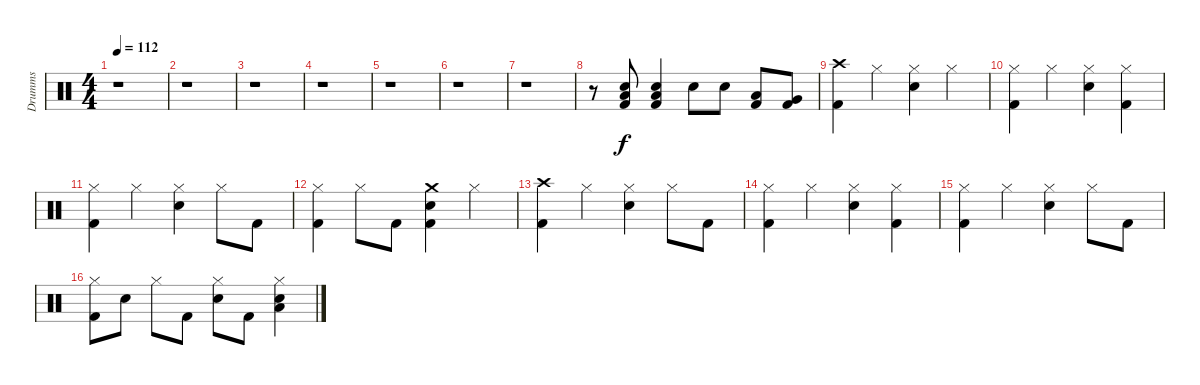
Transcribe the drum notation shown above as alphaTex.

\track ("Drumms" "Drumms") {instrument percussion}
\staff {score}
\articulation defaults
\ts (4 4)
\tempo 112
\clef neutral
\ks c
r.1{dy f} |
r.1 |
r.1 |
r.1 |
r.1 |
r.1 |
r.1 |
r.8 ("Kick (hit) 2" "Snare (hit) 2" "Low Tom (hit)").8 ("Kick (hit) 2" "Snare (hit) 2" "Low Tom (hit)").4 "Snare (hit) 2".8 "Snare (hit) 2".8 ("Kick (hit) 2" "Low Tom (hit)").8 ("Kick (hit) 2" "Very Low Tom (hit)").8 |
("Kick (hit) 2" "Crash high (hit)").4 "Hi-Hat (closed)".4 ("Hi-Hat (closed)" "Snare (hit) 2").4 "Hi-Hat (closed)".4 |
("Kick (hit) 2" "Hi-Hat (closed)").4 "Hi-Hat (closed)".4 ("Hi-Hat (closed)" "Snare (hit) 2").4 ("Kick (hit) 2" "Hi-Hat (closed)").4 |
("Kick (hit) 2" "Hi-Hat (closed)").4 "Hi-Hat (closed)".4 ("Hi-Hat (closed)" "Snare (hit) 2").4 "Hi-Hat (closed)".8 "Kick (hit) 2".8 |
("Kick (hit) 2" "Hi-Hat (closed)").4 "Hi-Hat (closed)".8 "Kick (hit) 2".8 ("Kick (hit) 2" "Crash medium (hit)" "Snare (hit) 2").4 "Hi-Hat (closed)".4 |
("Kick (hit) 2" "Crash high (hit)").4 "Hi-Hat (closed)".4 ("Hi-Hat (closed)" "Snare (hit) 2").4 "Hi-Hat (closed)".8 "Kick (hit) 2".8 |
("Kick (hit) 2" "Hi-Hat (closed)").4 "Hi-Hat (closed)".4 ("Hi-Hat (closed)" "Snare (hit) 2").4 ("Kick (hit) 2" "Hi-Hat (closed)").4 |
("Kick (hit) 2" "Hi-Hat (closed)").4 "Hi-Hat (closed)".4 ("Hi-Hat (closed)" "Snare (hit) 2").4 "Hi-Hat (closed)".8 "Kick (hit) 2".8 |
("Kick (hit) 2" "Hi-Hat (closed)").8 "Snare (hit) 2".8 "Hi-Hat (closed)".8 "Kick (hit) 2".8 ("Hi-Hat (closed)" "Snare (hit) 2").8 "Kick (hit) 2".8 ("Low Tom (hit)" "Hi-Hat (closed)" "Snare (hit) 2").4
